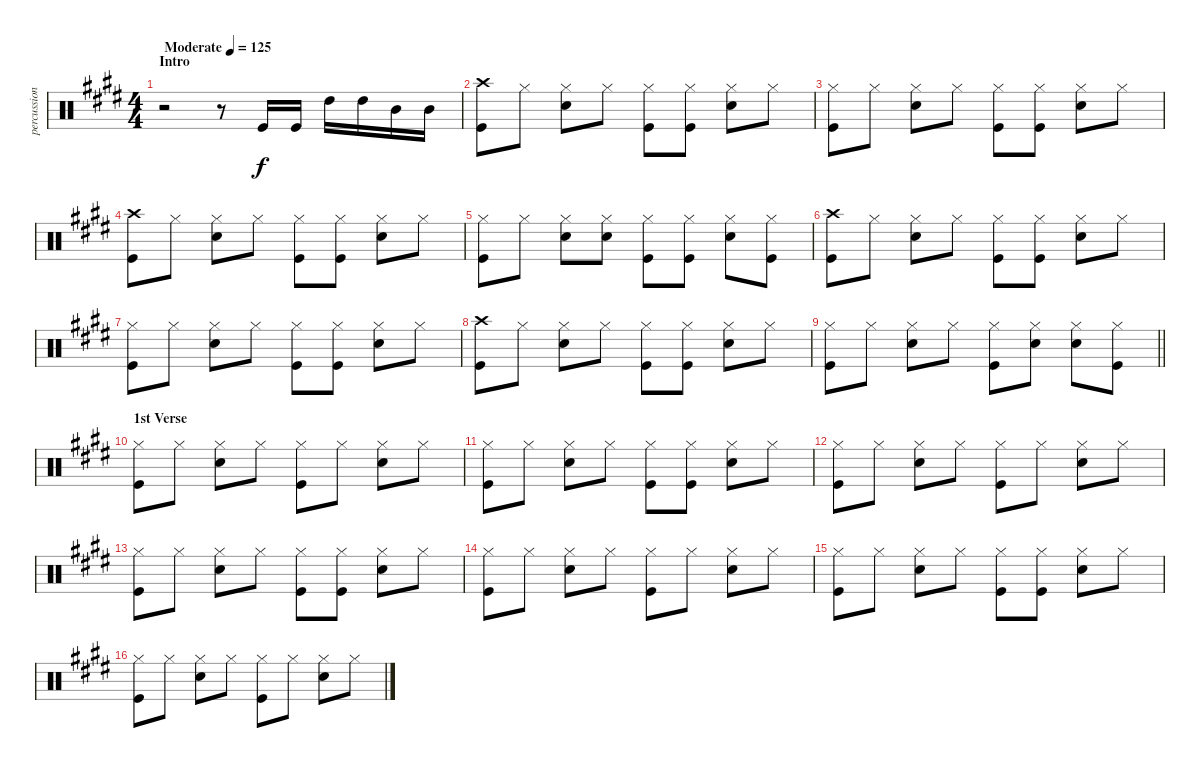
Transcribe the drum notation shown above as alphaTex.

\track ("percussion" "percussion") {instrument percussion}
\staff {score}
\articulation defaults
\ts (4 4)
\section ("" "Intro")
\tempo (125 "Moderate")
\clef neutral
\ks e
r.2{dy f} r.8 "Kick (hit)".16 "Kick (hit)".16 "High Tom (hit)".16 "High Tom (hit)".16 "Mid Tom (hit)".16 "Mid Tom (hit)".16 |
("Crash high (hit)" "Kick (hit)").8 "Hi-Hat (closed)".8 ("Electric Snare (hit)" "Hi-Hat (closed)").8 "Hi-Hat (closed)".8 ("Hi-Hat (closed)" "Kick (hit)").8 ("Hi-Hat (closed)" "Kick (hit)").8 ("Electric Snare (hit)" "Hi-Hat (closed)").8 "Hi-Hat (closed)".8 |
("Hi-Hat (closed)" "Kick (hit)").8 "Hi-Hat (closed)".8 ("Electric Snare (hit)" "Hi-Hat (closed)").8 "Hi-Hat (closed)".8 ("Hi-Hat (closed)" "Kick (hit)").8 ("Hi-Hat (closed)" "Kick (hit)").8 ("Electric Snare (hit)" "Hi-Hat (closed)").8 "Hi-Hat (closed)".8 |
("Crash high (hit)" "Kick (hit)").8 "Hi-Hat (closed)".8 ("Electric Snare (hit)" "Hi-Hat (closed)").8 "Hi-Hat (closed)".8 ("Hi-Hat (closed)" "Kick (hit)").8 ("Hi-Hat (closed)" "Kick (hit)").8 ("Electric Snare (hit)" "Hi-Hat (closed)").8 "Hi-Hat (closed)".8 |
("Hi-Hat (closed)" "Kick (hit)").8 "Hi-Hat (closed)".8 ("Electric Snare (hit)" "Hi-Hat (closed)").8 ("Electric Snare (hit)" "Hi-Hat (closed)").8 ("Hi-Hat (closed)" "Kick (hit)").8 ("Hi-Hat (closed)" "Kick (hit)").8 ("Electric Snare (hit)" "Hi-Hat (closed)").8 ("Hi-Hat (closed)" "Kick (hit)").8 |
("Crash high (hit)" "Kick (hit)").8 "Hi-Hat (closed)".8 ("Electric Snare (hit)" "Hi-Hat (closed)").8 "Hi-Hat (closed)".8 ("Hi-Hat (closed)" "Kick (hit)").8 ("Hi-Hat (closed)" "Kick (hit)").8 ("Electric Snare (hit)" "Hi-Hat (closed)").8 "Hi-Hat (closed)".8 |
("Hi-Hat (closed)" "Kick (hit)").8 "Hi-Hat (closed)".8 ("Electric Snare (hit)" "Hi-Hat (closed)").8 "Hi-Hat (closed)".8 ("Hi-Hat (closed)" "Kick (hit)").8 ("Hi-Hat (closed)" "Kick (hit)").8 ("Electric Snare (hit)" "Hi-Hat (closed)").8 "Hi-Hat (closed)".8 |
("Crash high (hit)" "Kick (hit)").8 "Hi-Hat (closed)".8 ("Electric Snare (hit)" "Hi-Hat (closed)").8 "Hi-Hat (closed)".8 ("Hi-Hat (closed)" "Kick (hit)").8 ("Hi-Hat (closed)" "Kick (hit)").8 ("Electric Snare (hit)" "Hi-Hat (closed)").8 "Hi-Hat (closed)".8 |
\barLineRight lightlight
("Hi-Hat (closed)" "Kick (hit)").8 "Hi-Hat (closed)".8 ("Electric Snare (hit)" "Hi-Hat (closed)").8 "Hi-Hat (closed)".8 ("Hi-Hat (closed)" "Kick (hit)").8 ("Electric Snare (hit)" "Hi-Hat (closed)").8 ("Electric Snare (hit)" "Hi-Hat (closed)").8 ("Hi-Hat (closed)" "Kick (hit)").8 |
\section ("" "1st Verse")
("Hi-Hat (closed)" "Kick (hit)").8 "Hi-Hat (closed)".8 ("Electric Snare (hit)" "Hi-Hat (closed)").8 "Hi-Hat (closed)".8 ("Hi-Hat (closed)" "Kick (hit)").8 "Hi-Hat (closed)".8 ("Electric Snare (hit)" "Hi-Hat (closed)").8 "Hi-Hat (closed)".8 |
("Hi-Hat (closed)" "Kick (hit)").8 "Hi-Hat (closed)".8 ("Electric Snare (hit)" "Hi-Hat (closed)").8 "Hi-Hat (closed)".8 ("Hi-Hat (closed)" "Kick (hit)").8 ("Hi-Hat (closed)" "Kick (hit)").8 ("Electric Snare (hit)" "Hi-Hat (closed)").8 "Hi-Hat (closed)".8 |
("Hi-Hat (closed)" "Kick (hit)").8 "Hi-Hat (closed)".8 ("Electric Snare (hit)" "Hi-Hat (closed)").8 "Hi-Hat (closed)".8 ("Hi-Hat (closed)" "Kick (hit)").8 "Hi-Hat (closed)".8 ("Electric Snare (hit)" "Hi-Hat (closed)").8 "Hi-Hat (closed)".8 |
("Hi-Hat (closed)" "Kick (hit)").8 "Hi-Hat (closed)".8 ("Electric Snare (hit)" "Hi-Hat (closed)").8 "Hi-Hat (closed)".8 ("Hi-Hat (closed)" "Kick (hit)").8 ("Hi-Hat (closed)" "Kick (hit)").8 ("Electric Snare (hit)" "Hi-Hat (closed)").8 "Hi-Hat (closed)".8 |
("Hi-Hat (closed)" "Kick (hit)").8 "Hi-Hat (closed)".8 ("Electric Snare (hit)" "Hi-Hat (closed)").8 "Hi-Hat (closed)".8 ("Hi-Hat (closed)" "Kick (hit)").8 "Hi-Hat (closed)".8 ("Electric Snare (hit)" "Hi-Hat (closed)").8 "Hi-Hat (closed)".8 |
("Hi-Hat (closed)" "Kick (hit)").8 "Hi-Hat (closed)".8 ("Electric Snare (hit)" "Hi-Hat (closed)").8 "Hi-Hat (closed)".8 ("Hi-Hat (closed)" "Kick (hit)").8 ("Hi-Hat (closed)" "Kick (hit)").8 ("Electric Snare (hit)" "Hi-Hat (closed)").8 "Hi-Hat (closed)".8 |
("Hi-Hat (closed)" "Kick (hit)").8 "Hi-Hat (closed)".8 ("Electric Snare (hit)" "Hi-Hat (closed)").8 "Hi-Hat (closed)".8 ("Hi-Hat (closed)" "Kick (hit)").8 "Hi-Hat (closed)".8 ("Electric Snare (hit)" "Hi-Hat (closed)").8 "Hi-Hat (closed)".8
